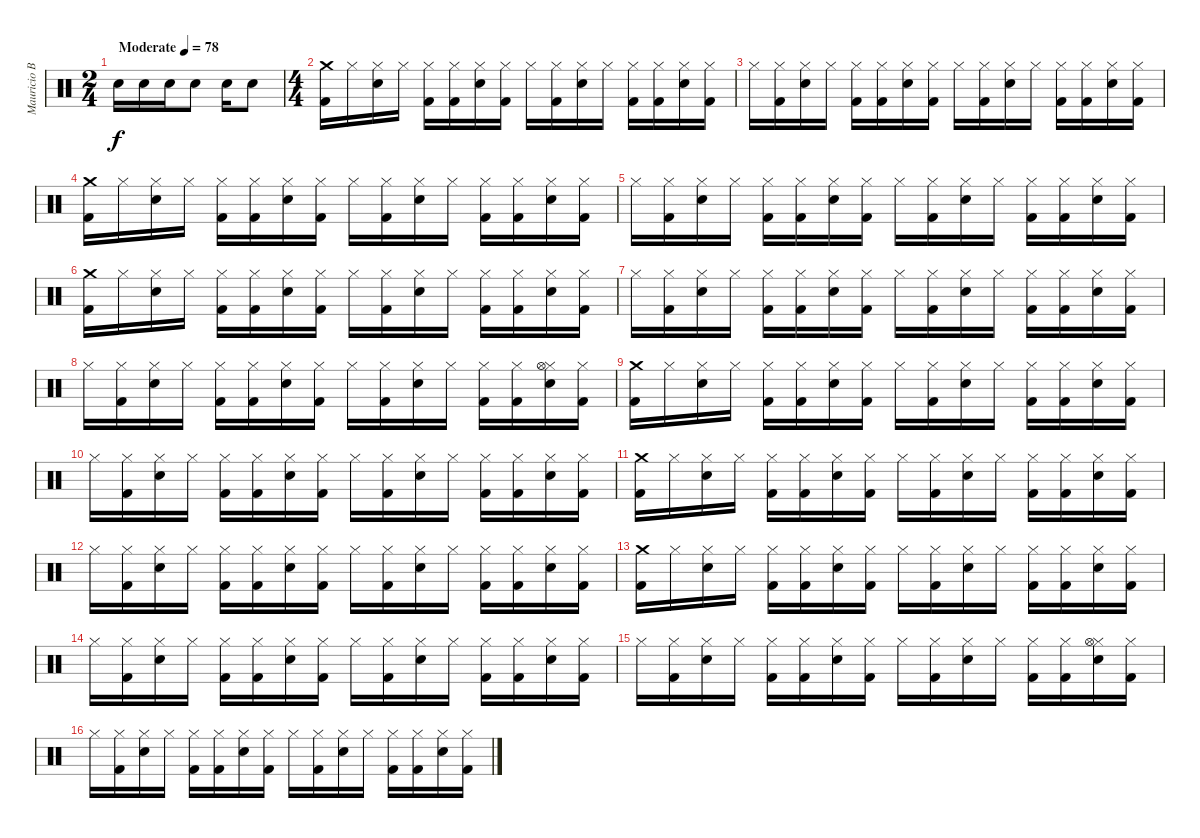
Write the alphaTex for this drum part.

\track ("Mauricio Basualto" "Mauricio B") {instrument percussion}
\staff {score}
\articulation defaults
\ts (2 4)
\tempo (78 "Moderate")
\clef neutral
\ks c "Snare (hit) 2".16{dy f} "Snare (hit) 2".16 "Snare (hit) 2".16 "Snare (hit) 2".8 "Snare (hit) 2".16 "Snare (hit) 2".8
|
\ts (4 4)
("Crash medium (hit)" "Kick (hit) 2").16 "Hi-Hat (closed)".16 ("Hi-Hat (closed)" "Snare (hit) 2").16 "Hi-Hat (closed)".16 ("Hi-Hat (closed)" "Kick (hit) 2").16 ("Hi-Hat (closed)" "Kick (hit) 2").16 ("Hi-Hat (closed)" "Snare (hit) 2").16 ("Hi-Hat (closed)" "Kick (hit) 2").16 "Hi-Hat (closed)".16 ("Hi-Hat (closed)" "Kick (hit) 2").16 ("Hi-Hat (closed)" "Snare (hit) 2").16 "Hi-Hat (closed)".16 ("Hi-Hat (closed)" "Kick (hit) 2").16 ("Hi-Hat (closed)" "Kick (hit) 2").16 ("Hi-Hat (closed)" "Snare (hit) 2").16 ("Hi-Hat (closed)" "Kick (hit) 2").16 |
"Hi-Hat (closed)".16 ("Hi-Hat (closed)" "Kick (hit) 2").16 ("Hi-Hat (closed)" "Snare (hit) 2").16 "Hi-Hat (closed)".16 ("Hi-Hat (closed)" "Kick (hit) 2").16 ("Hi-Hat (closed)" "Kick (hit) 2").16 ("Hi-Hat (closed)" "Snare (hit) 2").16 ("Hi-Hat (closed)" "Kick (hit) 2").16 "Hi-Hat (closed)".16 ("Hi-Hat (closed)" "Kick (hit) 2").16 ("Hi-Hat (closed)" "Snare (hit) 2").16 "Hi-Hat (closed)".16 ("Hi-Hat (closed)" "Kick (hit) 2").16 ("Hi-Hat (closed)" "Kick (hit) 2").16 ("Hi-Hat (closed)" "Snare (hit) 2").16 ("Hi-Hat (closed)" "Kick (hit) 2").16 |
("Crash medium (hit)" "Kick (hit) 2").16 "Hi-Hat (closed)".16 ("Hi-Hat (closed)" "Snare (hit) 2").16 "Hi-Hat (closed)".16 ("Hi-Hat (closed)" "Kick (hit) 2").16 ("Hi-Hat (closed)" "Kick (hit) 2").16 ("Hi-Hat (closed)" "Snare (hit) 2").16 ("Hi-Hat (closed)" "Kick (hit) 2").16 "Hi-Hat (closed)".16 ("Hi-Hat (closed)" "Kick (hit) 2").16 ("Hi-Hat (closed)" "Snare (hit) 2").16 "Hi-Hat (closed)".16 ("Hi-Hat (closed)" "Kick (hit) 2").16 ("Hi-Hat (closed)" "Kick (hit) 2").16 ("Hi-Hat (closed)" "Snare (hit) 2").16 ("Hi-Hat (closed)" "Kick (hit) 2").16 |
"Hi-Hat (closed)".16 ("Hi-Hat (closed)" "Kick (hit) 2").16 ("Hi-Hat (closed)" "Snare (hit) 2").16 "Hi-Hat (closed)".16 ("Hi-Hat (closed)" "Kick (hit) 2").16 ("Hi-Hat (closed)" "Kick (hit) 2").16 ("Hi-Hat (closed)" "Snare (hit) 2").16 ("Hi-Hat (closed)" "Kick (hit) 2").16 "Hi-Hat (closed)".16 ("Hi-Hat (closed)" "Kick (hit) 2").16 ("Hi-Hat (closed)" "Snare (hit) 2").16 "Hi-Hat (closed)".16 ("Hi-Hat (closed)" "Kick (hit) 2").16 ("Hi-Hat (closed)" "Kick (hit) 2").16 ("Hi-Hat (closed)" "Snare (hit) 2").16 ("Hi-Hat (closed)" "Kick (hit) 2").16 |
("Crash medium (hit)" "Kick (hit) 2").16 "Hi-Hat (closed)".16 ("Hi-Hat (closed)" "Snare (hit) 2").16 "Hi-Hat (closed)".16 ("Hi-Hat (closed)" "Kick (hit) 2").16 ("Hi-Hat (closed)" "Kick (hit) 2").16 ("Hi-Hat (closed)" "Snare (hit) 2").16 ("Hi-Hat (closed)" "Kick (hit) 2").16 "Hi-Hat (closed)".16 ("Hi-Hat (closed)" "Kick (hit) 2").16 ("Hi-Hat (closed)" "Snare (hit) 2").16 "Hi-Hat (closed)".16 ("Hi-Hat (closed)" "Kick (hit) 2").16 ("Hi-Hat (closed)" "Kick (hit) 2").16 ("Hi-Hat (closed)" "Snare (hit) 2").16 ("Hi-Hat (closed)" "Kick (hit) 2").16 |
"Hi-Hat (closed)".16 ("Hi-Hat (closed)" "Kick (hit) 2").16 ("Hi-Hat (closed)" "Snare (hit) 2").16 "Hi-Hat (closed)".16 ("Hi-Hat (closed)" "Kick (hit) 2").16 ("Hi-Hat (closed)" "Kick (hit) 2").16 ("Hi-Hat (closed)" "Snare (hit) 2").16 ("Hi-Hat (closed)" "Kick (hit) 2").16 "Hi-Hat (closed)".16 ("Hi-Hat (closed)" "Kick (hit) 2").16 ("Hi-Hat (closed)" "Snare (hit) 2").16 "Hi-Hat (closed)".16 ("Hi-Hat (closed)" "Kick (hit) 2").16 ("Hi-Hat (closed)" "Kick (hit) 2").16 ("Hi-Hat (closed)" "Snare (hit) 2").16 ("Hi-Hat (closed)" "Kick (hit) 2").16 |
"Hi-Hat (closed)".16 ("Hi-Hat (closed)" "Kick (hit) 2").16 ("Hi-Hat (closed)" "Snare (hit) 2").16 "Hi-Hat (closed)".16 ("Hi-Hat (closed)" "Kick (hit) 2").16 ("Hi-Hat (closed)" "Kick (hit) 2").16 ("Hi-Hat (closed)" "Snare (hit) 2").16 ("Hi-Hat (closed)" "Kick (hit) 2").16 "Hi-Hat (closed)".16 ("Hi-Hat (closed)" "Kick (hit) 2").16 ("Hi-Hat (closed)" "Snare (hit) 2").16 "Hi-Hat (closed)".16 ("Hi-Hat (closed)" "Kick (hit) 2").16 ("Hi-Hat (closed)" "Kick (hit) 2").16 ("Hi-Hat (closed)" "Hi-Hat (open)" "Snare (hit) 2").16 ("Hi-Hat (closed)" "Kick (hit) 2").16 |
("Crash medium (hit)" "Kick (hit) 2").16 "Hi-Hat (closed)".16 ("Hi-Hat (closed)" "Snare (hit) 2").16 "Hi-Hat (closed)".16 ("Hi-Hat (closed)" "Kick (hit) 2").16 ("Hi-Hat (closed)" "Kick (hit) 2").16 ("Hi-Hat (closed)" "Snare (hit) 2").16 ("Hi-Hat (closed)" "Kick (hit) 2").16 "Hi-Hat (closed)".16 ("Hi-Hat (closed)" "Kick (hit) 2").16 ("Hi-Hat (closed)" "Snare (hit) 2").16 "Hi-Hat (closed)".16 ("Hi-Hat (closed)" "Kick (hit) 2").16 ("Hi-Hat (closed)" "Kick (hit) 2").16 ("Hi-Hat (closed)" "Snare (hit) 2").16 ("Hi-Hat (closed)" "Kick (hit) 2").16 |
"Hi-Hat (closed)".16 ("Hi-Hat (closed)" "Kick (hit) 2").16 ("Hi-Hat (closed)" "Snare (hit) 2").16 "Hi-Hat (closed)".16 ("Hi-Hat (closed)" "Kick (hit) 2").16 ("Hi-Hat (closed)" "Kick (hit) 2").16 ("Hi-Hat (closed)" "Snare (hit) 2").16 ("Hi-Hat (closed)" "Kick (hit) 2").16 "Hi-Hat (closed)".16 ("Hi-Hat (closed)" "Kick (hit) 2").16 ("Hi-Hat (closed)" "Snare (hit) 2").16 "Hi-Hat (closed)".16 ("Hi-Hat (closed)" "Kick (hit) 2").16 ("Hi-Hat (closed)" "Kick (hit) 2").16 ("Hi-Hat (closed)" "Snare (hit) 2").16 ("Hi-Hat (closed)" "Kick (hit) 2").16 |
("Crash medium (hit)" "Kick (hit) 2").16 "Hi-Hat (closed)".16 ("Hi-Hat (closed)" "Snare (hit) 2").16 "Hi-Hat (closed)".16 ("Hi-Hat (closed)" "Kick (hit) 2").16 ("Hi-Hat (closed)" "Kick (hit) 2").16 ("Hi-Hat (closed)" "Snare (hit) 2").16 ("Hi-Hat (closed)" "Kick (hit) 2").16 "Hi-Hat (closed)".16 ("Hi-Hat (closed)" "Kick (hit) 2").16 ("Hi-Hat (closed)" "Snare (hit) 2").16 "Hi-Hat (closed)".16 ("Hi-Hat (closed)" "Kick (hit) 2").16 ("Hi-Hat (closed)" "Kick (hit) 2").16 ("Hi-Hat (closed)" "Snare (hit) 2").16 ("Hi-Hat (closed)" "Kick (hit) 2").16 |
"Hi-Hat (closed)".16 ("Hi-Hat (closed)" "Kick (hit) 2").16 ("Hi-Hat (closed)" "Snare (hit) 2").16 "Hi-Hat (closed)".16 ("Hi-Hat (closed)" "Kick (hit) 2").16 ("Hi-Hat (closed)" "Kick (hit) 2").16 ("Hi-Hat (closed)" "Snare (hit) 2").16 ("Hi-Hat (closed)" "Kick (hit) 2").16 "Hi-Hat (closed)".16 ("Hi-Hat (closed)" "Kick (hit) 2").16 ("Hi-Hat (closed)" "Snare (hit) 2").16 "Hi-Hat (closed)".16 ("Hi-Hat (closed)" "Kick (hit) 2").16 ("Hi-Hat (closed)" "Kick (hit) 2").16 ("Hi-Hat (closed)" "Snare (hit) 2").16 ("Hi-Hat (closed)" "Kick (hit) 2").16 |
("Crash medium (hit)" "Kick (hit) 2").16 "Hi-Hat (closed)".16 ("Hi-Hat (closed)" "Snare (hit) 2").16 "Hi-Hat (closed)".16 ("Hi-Hat (closed)" "Kick (hit) 2").16 ("Hi-Hat (closed)" "Kick (hit) 2").16 ("Hi-Hat (closed)" "Snare (hit) 2").16 ("Hi-Hat (closed)" "Kick (hit) 2").16 "Hi-Hat (closed)".16 ("Hi-Hat (closed)" "Kick (hit) 2").16 ("Hi-Hat (closed)" "Snare (hit) 2").16 "Hi-Hat (closed)".16 ("Hi-Hat (closed)" "Kick (hit) 2").16 ("Hi-Hat (closed)" "Kick (hit) 2").16 ("Hi-Hat (closed)" "Snare (hit) 2").16 ("Hi-Hat (closed)" "Kick (hit) 2").16 |
"Hi-Hat (closed)".16 ("Hi-Hat (closed)" "Kick (hit) 2").16 ("Hi-Hat (closed)" "Snare (hit) 2").16 "Hi-Hat (closed)".16 ("Hi-Hat (closed)" "Kick (hit) 2").16 ("Hi-Hat (closed)" "Kick (hit) 2").16 ("Hi-Hat (closed)" "Snare (hit) 2").16 ("Hi-Hat (closed)" "Kick (hit) 2").16 "Hi-Hat (closed)".16 ("Hi-Hat (closed)" "Kick (hit) 2").16 ("Hi-Hat (closed)" "Snare (hit) 2").16 "Hi-Hat (closed)".16 ("Hi-Hat (closed)" "Kick (hit) 2").16 ("Hi-Hat (closed)" "Kick (hit) 2").16 ("Hi-Hat (closed)" "Snare (hit) 2").16 ("Hi-Hat (closed)" "Kick (hit) 2").16 |
"Hi-Hat (closed)".16 ("Hi-Hat (closed)" "Kick (hit) 2").16 ("Hi-Hat (closed)" "Snare (hit) 2").16 "Hi-Hat (closed)".16 ("Hi-Hat (closed)" "Kick (hit) 2").16 ("Hi-Hat (closed)" "Kick (hit) 2").16 ("Hi-Hat (closed)" "Snare (hit) 2").16 ("Hi-Hat (closed)" "Kick (hit) 2").16 "Hi-Hat (closed)".16 ("Hi-Hat (closed)" "Kick (hit) 2").16 ("Hi-Hat (closed)" "Snare (hit) 2").16 "Hi-Hat (closed)".16 ("Hi-Hat (closed)" "Kick (hit) 2").16 ("Hi-Hat (closed)" "Kick (hit) 2").16 ("Hi-Hat (closed)" "Hi-Hat (open)" "Snare (hit) 2").16 ("Hi-Hat (closed)" "Kick (hit) 2").16 |
"Hi-Hat (closed)".16 ("Hi-Hat (closed)" "Kick (hit) 2").16 ("Hi-Hat (closed)" "Snare (hit) 2").16 "Hi-Hat (closed)".16 ("Hi-Hat (closed)" "Kick (hit) 2").16 ("Hi-Hat (closed)" "Kick (hit) 2").16 ("Hi-Hat (closed)" "Snare (hit) 2").16 ("Hi-Hat (closed)" "Kick (hit) 2").16 "Hi-Hat (closed)".16 ("Hi-Hat (closed)" "Kick (hit) 2").16 ("Hi-Hat (closed)" "Snare (hit) 2").16 "Hi-Hat (closed)".16 ("Hi-Hat (closed)" "Kick (hit) 2").16 ("Hi-Hat (closed)" "Kick (hit) 2").16 ("Hi-Hat (closed)" "Snare (hit) 2").16 ("Hi-Hat (closed)" "Kick (hit) 2").16
